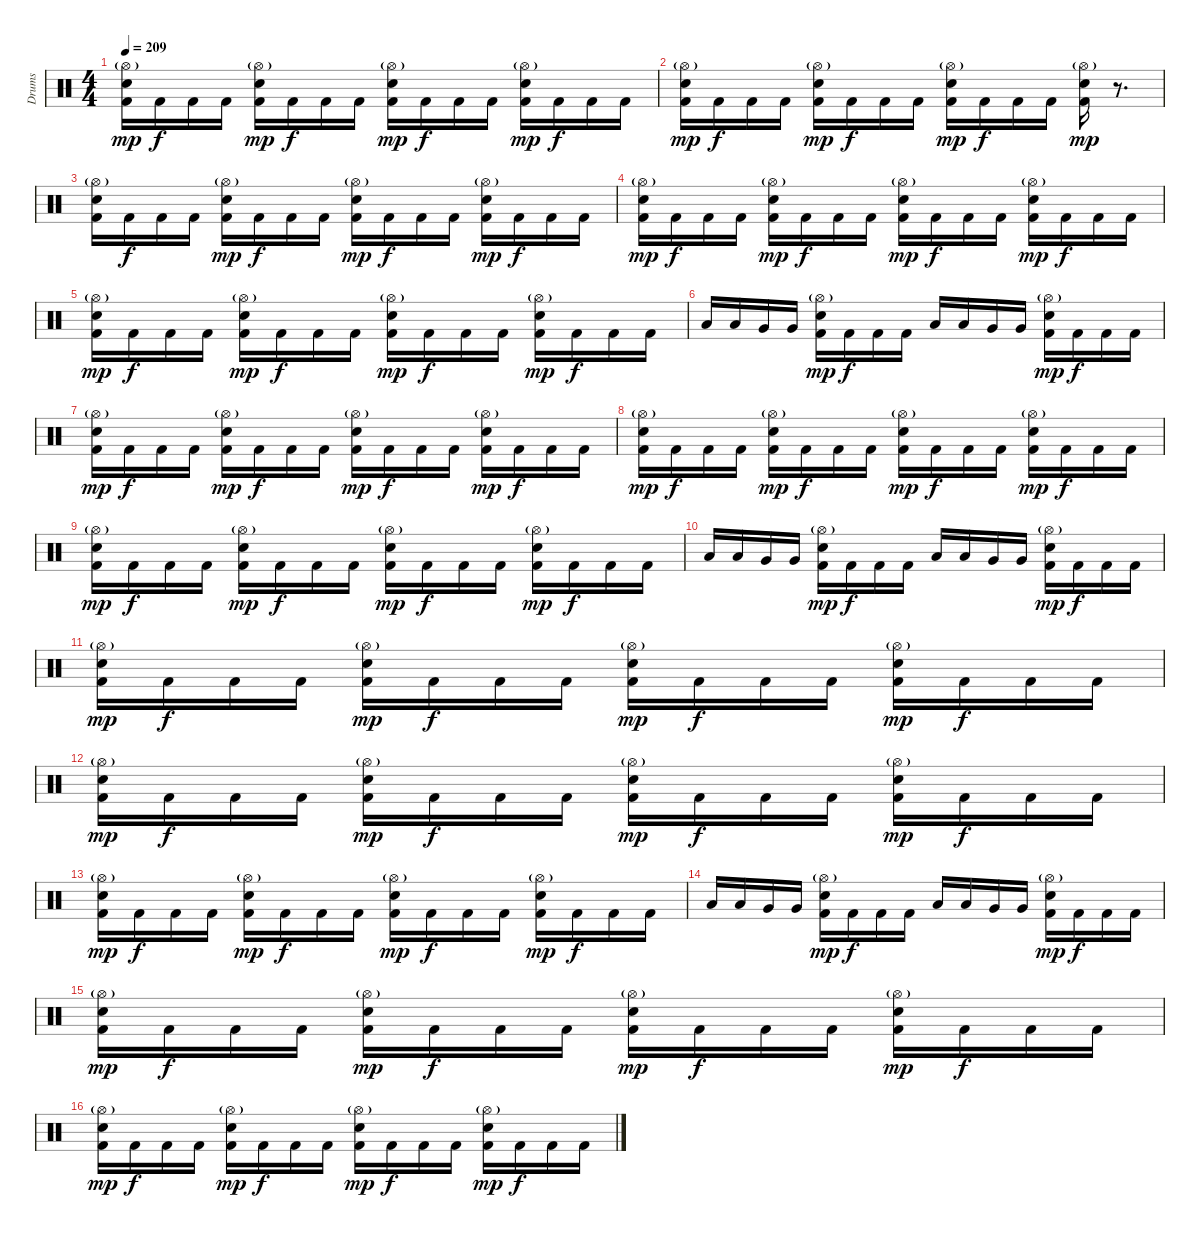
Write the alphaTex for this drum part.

\track ("Drums" "Drums") {instrument percussion}
\staff {score}
\articulation defaults
\ts (4 4)
\tempo 209
\clef neutral
\ks c
("Hi-Hat (open)"{g} "Snare (hit) 2" "Kick (hit) 2").16{dy mp} "Kick (hit) 2".16{dy f} "Kick (hit) 2".16 "Kick (hit) 2".16 ("Hi-Hat (open)"{g} "Snare (hit) 2" "Kick (hit) 2").16{dy mp} "Kick (hit) 2".16{dy f} "Kick (hit) 2".16 "Kick (hit) 2".16 ("Hi-Hat (open)"{g} "Snare (hit) 2" "Kick (hit) 2").16{dy mp} "Kick (hit) 2".16{dy f} "Kick (hit) 2".16 "Kick (hit) 2".16 ("Hi-Hat (open)"{g} "Snare (hit) 2" "Kick (hit) 2").16{dy mp} "Kick (hit) 2".16{dy f} "Kick (hit) 2".16 "Kick (hit) 2".16 |
("Hi-Hat (open)"{g} "Snare (hit) 2" "Kick (hit) 2").16{dy mp} "Kick (hit) 2".16{dy f} "Kick (hit) 2".16 "Kick (hit) 2".16 ("Hi-Hat (open)"{g} "Snare (hit) 2" "Kick (hit) 2").16{dy mp} "Kick (hit) 2".16{dy f} "Kick (hit) 2".16 "Kick (hit) 2".16 ("Hi-Hat (open)"{g} "Snare (hit) 2" "Kick (hit) 2").16{dy mp} "Kick (hit) 2".16{dy f} "Kick (hit) 2".16 "Kick (hit) 2".16 ("Hi-Hat (open)"{g} "Snare (hit) 2" "Kick (hit) 2").16{dy mp} r.8{d} |
("Hi-Hat (open)"{g} "Snare (hit) 2" "Kick (hit) 2").16 "Kick (hit) 2".16{dy f} "Kick (hit) 2".16 "Kick (hit) 2".16 ("Hi-Hat (open)"{g} "Snare (hit) 2" "Kick (hit) 2").16{dy mp} "Kick (hit) 2".16{dy f} "Kick (hit) 2".16 "Kick (hit) 2".16 ("Hi-Hat (open)"{g} "Snare (hit) 2" "Kick (hit) 2").16{dy mp} "Kick (hit) 2".16{dy f} "Kick (hit) 2".16 "Kick (hit) 2".16 ("Hi-Hat (open)"{g} "Snare (hit) 2" "Kick (hit) 2").16{dy mp} "Kick (hit) 2".16{dy f} "Kick (hit) 2".16 "Kick (hit) 2".16 |
("Hi-Hat (open)"{g} "Snare (hit) 2" "Kick (hit) 2").16{dy mp} "Kick (hit) 2".16{dy f} "Kick (hit) 2".16 "Kick (hit) 2".16 ("Hi-Hat (open)"{g} "Snare (hit) 2" "Kick (hit) 2").16{dy mp} "Kick (hit) 2".16{dy f} "Kick (hit) 2".16 "Kick (hit) 2".16 ("Hi-Hat (open)"{g} "Snare (hit) 2" "Kick (hit) 2").16{dy mp} "Kick (hit) 2".16{dy f} "Kick (hit) 2".16 "Kick (hit) 2".16 ("Hi-Hat (open)"{g} "Snare (hit) 2" "Kick (hit) 2").16{dy mp} "Kick (hit) 2".16{dy f} "Kick (hit) 2".16 "Kick (hit) 2".16 |
("Hi-Hat (open)"{g} "Snare (hit) 2" "Kick (hit) 2").16{dy mp} "Kick (hit) 2".16{dy f} "Kick (hit) 2".16 "Kick (hit) 2".16 ("Hi-Hat (open)"{g} "Snare (hit) 2" "Kick (hit) 2").16{dy mp} "Kick (hit) 2".16{dy f} "Kick (hit) 2".16 "Kick (hit) 2".16 ("Hi-Hat (open)"{g} "Snare (hit) 2" "Kick (hit) 2").16{dy mp} "Kick (hit) 2".16{dy f} "Kick (hit) 2".16 "Kick (hit) 2".16 ("Hi-Hat (open)"{g} "Snare (hit) 2" "Kick (hit) 2").16{dy mp} "Kick (hit) 2".16{dy f} "Kick (hit) 2".16 "Kick (hit) 2".16 |
"Low Tom (hit)".16 "Low Tom (hit)".16 "Very Low Tom (hit)".16 "Very Low Tom (hit)".16 ("Hi-Hat (open)"{g} "Snare (hit) 2" "Kick (hit) 2").16{dy mp} "Kick (hit) 2".16{dy f} "Kick (hit) 2".16 "Kick (hit) 2".16 "Low Tom (hit)".16 "Low Tom (hit)".16 "Very Low Tom (hit)".16 "Very Low Tom (hit)".16 ("Hi-Hat (open)"{g} "Snare (hit) 2" "Kick (hit) 2").16{dy mp} "Kick (hit) 2".16{dy f} "Kick (hit) 2".16 "Kick (hit) 2".16 |
("Hi-Hat (open)"{g} "Snare (hit) 2" "Kick (hit) 2").16{dy mp} "Kick (hit) 2".16{dy f} "Kick (hit) 2".16 "Kick (hit) 2".16 ("Hi-Hat (open)"{g} "Snare (hit) 2" "Kick (hit) 2").16{dy mp} "Kick (hit) 2".16{dy f} "Kick (hit) 2".16 "Kick (hit) 2".16 ("Hi-Hat (open)"{g} "Snare (hit) 2" "Kick (hit) 2").16{dy mp} "Kick (hit) 2".16{dy f} "Kick (hit) 2".16 "Kick (hit) 2".16 ("Hi-Hat (open)"{g} "Snare (hit) 2" "Kick (hit) 2").16{dy mp} "Kick (hit) 2".16{dy f} "Kick (hit) 2".16 "Kick (hit) 2".16 |
("Hi-Hat (open)"{g} "Snare (hit) 2" "Kick (hit) 2").16{dy mp} "Kick (hit) 2".16{dy f} "Kick (hit) 2".16 "Kick (hit) 2".16 ("Hi-Hat (open)"{g} "Snare (hit) 2" "Kick (hit) 2").16{dy mp} "Kick (hit) 2".16{dy f} "Kick (hit) 2".16 "Kick (hit) 2".16 ("Hi-Hat (open)"{g} "Snare (hit) 2" "Kick (hit) 2").16{dy mp} "Kick (hit) 2".16{dy f} "Kick (hit) 2".16 "Kick (hit) 2".16 ("Hi-Hat (open)"{g} "Snare (hit) 2" "Kick (hit) 2").16{dy mp} "Kick (hit) 2".16{dy f} "Kick (hit) 2".16 "Kick (hit) 2".16 |
("Hi-Hat (open)"{g} "Snare (hit) 2" "Kick (hit) 2").16{dy mp} "Kick (hit) 2".16{dy f} "Kick (hit) 2".16 "Kick (hit) 2".16 ("Hi-Hat (open)"{g} "Snare (hit) 2" "Kick (hit) 2").16{dy mp} "Kick (hit) 2".16{dy f} "Kick (hit) 2".16 "Kick (hit) 2".16 ("Hi-Hat (open)"{g} "Snare (hit) 2" "Kick (hit) 2").16{dy mp} "Kick (hit) 2".16{dy f} "Kick (hit) 2".16 "Kick (hit) 2".16 ("Hi-Hat (open)"{g} "Snare (hit) 2" "Kick (hit) 2").16{dy mp} "Kick (hit) 2".16{dy f} "Kick (hit) 2".16 "Kick (hit) 2".16 |
"Low Tom (hit)".16 "Low Tom (hit)".16 "Very Low Tom (hit)".16 "Very Low Tom (hit)".16 ("Hi-Hat (open)"{g} "Snare (hit) 2" "Kick (hit) 2").16{dy mp} "Kick (hit) 2".16{dy f} "Kick (hit) 2".16 "Kick (hit) 2".16 "Low Tom (hit)".16 "Low Tom (hit)".16 "Very Low Tom (hit)".16 "Very Low Tom (hit)".16 ("Hi-Hat (open)"{g} "Snare (hit) 2" "Kick (hit) 2").16{dy mp} "Kick (hit) 2".16{dy f} "Kick (hit) 2".16 "Kick (hit) 2".16 |
("Hi-Hat (open)"{g} "Snare (hit) 2" "Kick (hit) 2").16{dy mp} "Kick (hit) 2".16{dy f} "Kick (hit) 2".16 "Kick (hit) 2".16 ("Hi-Hat (open)"{g} "Snare (hit) 2" "Kick (hit) 2").16{dy mp} "Kick (hit) 2".16{dy f} "Kick (hit) 2".16 "Kick (hit) 2".16 ("Hi-Hat (open)"{g} "Snare (hit) 2" "Kick (hit) 2").16{dy mp} "Kick (hit) 2".16{dy f} "Kick (hit) 2".16 "Kick (hit) 2".16 ("Hi-Hat (open)"{g} "Snare (hit) 2" "Kick (hit) 2").16{dy mp} "Kick (hit) 2".16{dy f} "Kick (hit) 2".16 "Kick (hit) 2".16 |
("Hi-Hat (open)"{g} "Snare (hit) 2" "Kick (hit) 2").16{dy mp} "Kick (hit) 2".16{dy f} "Kick (hit) 2".16 "Kick (hit) 2".16 ("Hi-Hat (open)"{g} "Snare (hit) 2" "Kick (hit) 2").16{dy mp} "Kick (hit) 2".16{dy f} "Kick (hit) 2".16 "Kick (hit) 2".16 ("Hi-Hat (open)"{g} "Snare (hit) 2" "Kick (hit) 2").16{dy mp} "Kick (hit) 2".16{dy f} "Kick (hit) 2".16 "Kick (hit) 2".16 ("Hi-Hat (open)"{g} "Snare (hit) 2" "Kick (hit) 2").16{dy mp} "Kick (hit) 2".16{dy f} "Kick (hit) 2".16 "Kick (hit) 2".16 |
("Hi-Hat (open)"{g} "Snare (hit) 2" "Kick (hit) 2").16{dy mp} "Kick (hit) 2".16{dy f} "Kick (hit) 2".16 "Kick (hit) 2".16 ("Hi-Hat (open)"{g} "Snare (hit) 2" "Kick (hit) 2").16{dy mp} "Kick (hit) 2".16{dy f} "Kick (hit) 2".16 "Kick (hit) 2".16 ("Hi-Hat (open)"{g} "Snare (hit) 2" "Kick (hit) 2").16{dy mp} "Kick (hit) 2".16{dy f} "Kick (hit) 2".16 "Kick (hit) 2".16 ("Hi-Hat (open)"{g} "Snare (hit) 2" "Kick (hit) 2").16{dy mp} "Kick (hit) 2".16{dy f} "Kick (hit) 2".16 "Kick (hit) 2".16 |
"Low Tom (hit)".16 "Low Tom (hit)".16 "Very Low Tom (hit)".16 "Very Low Tom (hit)".16 ("Hi-Hat (open)"{g} "Snare (hit) 2" "Kick (hit) 2").16{dy mp} "Kick (hit) 2".16{dy f} "Kick (hit) 2".16 "Kick (hit) 2".16 "Low Tom (hit)".16 "Low Tom (hit)".16 "Very Low Tom (hit)".16 "Very Low Tom (hit)".16 ("Hi-Hat (open)"{g} "Snare (hit) 2" "Kick (hit) 2").16{dy mp} "Kick (hit) 2".16{dy f} "Kick (hit) 2".16 "Kick (hit) 2".16 |
("Hi-Hat (open)"{g} "Snare (hit) 2" "Kick (hit) 2").16{dy mp} "Kick (hit) 2".16{dy f} "Kick (hit) 2".16 "Kick (hit) 2".16 ("Hi-Hat (open)"{g} "Snare (hit) 2" "Kick (hit) 2").16{dy mp} "Kick (hit) 2".16{dy f} "Kick (hit) 2".16 "Kick (hit) 2".16 ("Hi-Hat (open)"{g} "Snare (hit) 2" "Kick (hit) 2").16{dy mp} "Kick (hit) 2".16{dy f} "Kick (hit) 2".16 "Kick (hit) 2".16 ("Hi-Hat (open)"{g} "Snare (hit) 2" "Kick (hit) 2").16{dy mp} "Kick (hit) 2".16{dy f} "Kick (hit) 2".16 "Kick (hit) 2".16 |
("Hi-Hat (open)"{g} "Snare (hit) 2" "Kick (hit) 2").16{dy mp} "Kick (hit) 2".16{dy f} "Kick (hit) 2".16 "Kick (hit) 2".16 ("Hi-Hat (open)"{g} "Snare (hit) 2" "Kick (hit) 2").16{dy mp} "Kick (hit) 2".16{dy f} "Kick (hit) 2".16 "Kick (hit) 2".16 ("Hi-Hat (open)"{g} "Snare (hit) 2" "Kick (hit) 2").16{dy mp} "Kick (hit) 2".16{dy f} "Kick (hit) 2".16 "Kick (hit) 2".16 ("Hi-Hat (open)"{g} "Snare (hit) 2" "Kick (hit) 2").16{dy mp} "Kick (hit) 2".16{dy f} "Kick (hit) 2".16 "Kick (hit) 2".16
